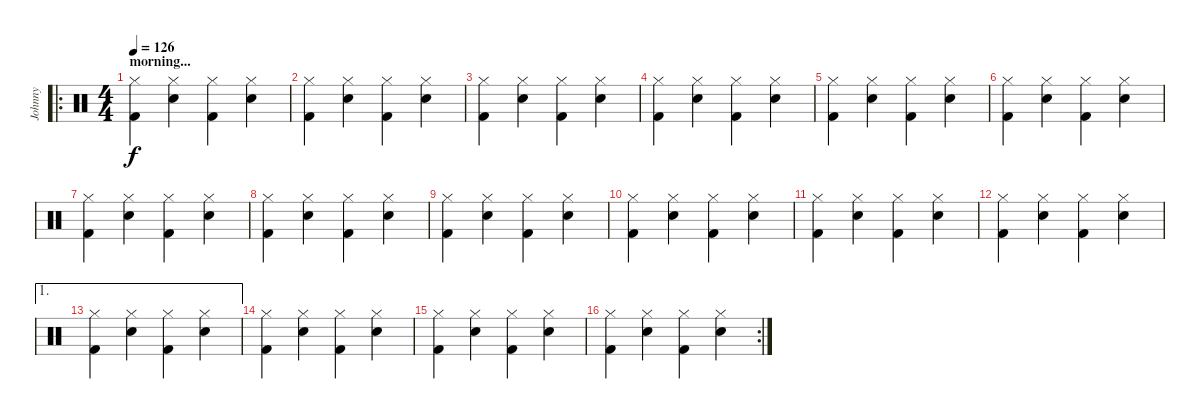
\track ("Johnny" "Johnny") {instrument percussion}
\staff {score}
\articulation defaults
\ro
\ts (4 4)
\section ("" "morning...")
\tempo 126
\clef neutral
\ks c
("Kick (hit) 2" "Hi-Hat (closed)").4{dy f} ("Electric Snare (hit)" "Hi-Hat (closed)").4 ("Kick (hit) 2" "Hi-Hat (closed)").4 ("Electric Snare (hit)" "Hi-Hat (closed)").4 |
("Kick (hit) 2" "Hi-Hat (closed)").4 ("Electric Snare (hit)" "Hi-Hat (closed)").4 ("Kick (hit) 2" "Hi-Hat (closed)").4 ("Electric Snare (hit)" "Hi-Hat (closed)").4 |
("Kick (hit) 2" "Hi-Hat (closed)").4 ("Electric Snare (hit)" "Hi-Hat (closed)").4 ("Kick (hit) 2" "Hi-Hat (closed)").4 ("Electric Snare (hit)" "Hi-Hat (closed)").4 |
("Kick (hit) 2" "Hi-Hat (closed)").4 ("Electric Snare (hit)" "Hi-Hat (closed)").4 ("Kick (hit) 2" "Hi-Hat (closed)").4 ("Electric Snare (hit)" "Hi-Hat (closed)").4 |
("Kick (hit) 2" "Hi-Hat (closed)").4 ("Electric Snare (hit)" "Hi-Hat (closed)").4 ("Kick (hit) 2" "Hi-Hat (closed)").4 ("Electric Snare (hit)" "Hi-Hat (closed)").4 |
("Kick (hit) 2" "Hi-Hat (closed)").4 ("Electric Snare (hit)" "Hi-Hat (closed)").4 ("Kick (hit) 2" "Hi-Hat (closed)").4 ("Electric Snare (hit)" "Hi-Hat (closed)").4 |
("Kick (hit) 2" "Hi-Hat (closed)").4 ("Electric Snare (hit)" "Hi-Hat (closed)").4 ("Kick (hit) 2" "Hi-Hat (closed)").4 ("Electric Snare (hit)" "Hi-Hat (closed)").4 |
("Kick (hit) 2" "Hi-Hat (closed)").4 ("Electric Snare (hit)" "Hi-Hat (closed)").4 ("Kick (hit) 2" "Hi-Hat (closed)").4 ("Electric Snare (hit)" "Hi-Hat (closed)").4 |
("Kick (hit) 2" "Hi-Hat (closed)").4 ("Electric Snare (hit)" "Hi-Hat (closed)").4 ("Kick (hit) 2" "Hi-Hat (closed)").4 ("Electric Snare (hit)" "Hi-Hat (closed)").4 |
("Kick (hit) 2" "Hi-Hat (closed)").4 ("Electric Snare (hit)" "Hi-Hat (closed)").4 ("Kick (hit) 2" "Hi-Hat (closed)").4 ("Electric Snare (hit)" "Hi-Hat (closed)").4 |
("Kick (hit) 2" "Hi-Hat (closed)").4 ("Electric Snare (hit)" "Hi-Hat (closed)").4 ("Kick (hit) 2" "Hi-Hat (closed)").4 ("Electric Snare (hit)" "Hi-Hat (closed)").4 |
("Kick (hit) 2" "Hi-Hat (closed)").4 ("Electric Snare (hit)" "Hi-Hat (closed)").4 ("Kick (hit) 2" "Hi-Hat (closed)").4 ("Electric Snare (hit)" "Hi-Hat (closed)").4 |
\ae 1
("Kick (hit) 2" "Hi-Hat (closed)").4 ("Electric Snare (hit)" "Hi-Hat (closed)").4 ("Kick (hit) 2" "Hi-Hat (closed)").4 ("Electric Snare (hit)" "Hi-Hat (closed)").4 |
("Kick (hit) 2" "Hi-Hat (closed)").4 ("Electric Snare (hit)" "Hi-Hat (closed)").4 ("Kick (hit) 2" "Hi-Hat (closed)").4 ("Electric Snare (hit)" "Hi-Hat (closed)").4 |
("Kick (hit) 2" "Hi-Hat (closed)").4 ("Electric Snare (hit)" "Hi-Hat (closed)").4 ("Kick (hit) 2" "Hi-Hat (closed)").4 ("Electric Snare (hit)" "Hi-Hat (closed)").4 |
\rc 2
("Kick (hit) 2" "Hi-Hat (closed)").4 ("Electric Snare (hit)" "Hi-Hat (closed)").4 ("Kick (hit) 2" "Hi-Hat (closed)").4 ("Electric Snare (hit)" "Hi-Hat (closed)").4
